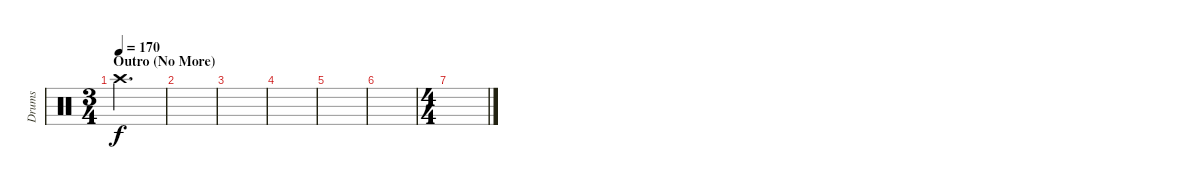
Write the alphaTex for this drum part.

\track ("Drums" "Drums") {instrument percussion}
\staff {score}
\articulation defaults
\ts (3 4)
\section ("" "Outro (No More)")
\tempo 170
\clef neutral
\ks c "Crash high (hit)".2{d dy f}
|
|
|
|
|
|
\ts (4 4)
